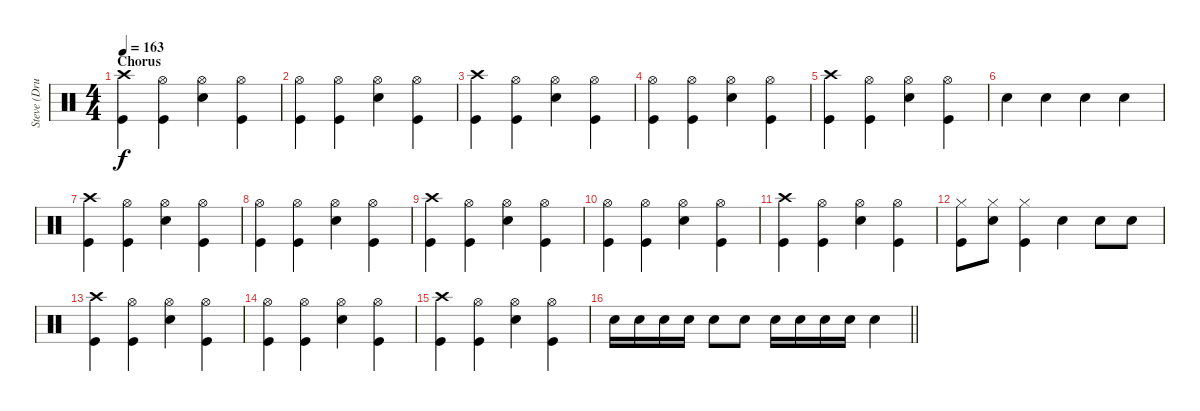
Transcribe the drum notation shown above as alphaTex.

\track ("Steve (Drums)" "Steve (Dru") {instrument percussion}
\staff {score}
\articulation defaults
\ts (4 4)
\section ("" "Chorus")
\tempo 163
\clef neutral
\ks c
("Crash high (hit)" "Kick (hit)").4{dy f} ("Hi-Hat (open)" "Kick (hit)").4 ("Hi-Hat (open)" "Electric Snare (hit)").4 ("Hi-Hat (open)" "Kick (hit)").4 |
("Hi-Hat (open)" "Kick (hit)").4 ("Hi-Hat (open)" "Kick (hit)").4 ("Hi-Hat (open)" "Electric Snare (hit)").4 ("Hi-Hat (open)" "Kick (hit)").4 |
("Crash high (hit)" "Kick (hit)").4 ("Hi-Hat (open)" "Kick (hit)").4 ("Hi-Hat (open)" "Electric Snare (hit)").4 ("Hi-Hat (open)" "Kick (hit)").4 |
("Hi-Hat (open)" "Kick (hit)").4 ("Hi-Hat (open)" "Kick (hit)").4 ("Hi-Hat (open)" "Electric Snare (hit)").4 ("Hi-Hat (open)" "Kick (hit)").4 |
("Crash high (hit)" "Kick (hit)").4 ("Hi-Hat (open)" "Kick (hit)").4 ("Hi-Hat (open)" "Electric Snare (hit)").4 ("Hi-Hat (open)" "Kick (hit)").4 |
"Electric Snare (hit)".4 "Electric Snare (hit)".4 "Electric Snare (hit)".4 "Electric Snare (hit)".4 |
("Crash high (hit)" "Kick (hit)").4 ("Hi-Hat (open)" "Kick (hit)").4 ("Hi-Hat (open)" "Electric Snare (hit)").4 ("Hi-Hat (open)" "Kick (hit)").4 |
("Hi-Hat (open)" "Kick (hit)").4 ("Hi-Hat (open)" "Kick (hit)").4 ("Hi-Hat (open)" "Electric Snare (hit)").4 ("Hi-Hat (open)" "Kick (hit)").4 |
("Crash high (hit)" "Kick (hit)").4 ("Hi-Hat (open)" "Kick (hit)").4 ("Hi-Hat (open)" "Electric Snare (hit)").4 ("Hi-Hat (open)" "Kick (hit)").4 |
("Hi-Hat (open)" "Kick (hit)").4 ("Hi-Hat (open)" "Kick (hit)").4 ("Hi-Hat (open)" "Electric Snare (hit)").4 ("Hi-Hat (open)" "Kick (hit)").4 |
("Crash high (hit)" "Kick (hit)").4 ("Hi-Hat (open)" "Kick (hit)").4 ("Hi-Hat (open)" "Electric Snare (hit)").4 ("Hi-Hat (open)" "Kick (hit)").4 |
("Hi-Hat (closed)" "Kick (hit)").8 ("Hi-Hat (closed)" "Electric Snare (hit)").8 ("Hi-Hat (closed)" "Kick (hit)").4 "Electric Snare (hit)".4 "Electric Snare (hit)".8 "Electric Snare (hit)".8 |
("Crash high (hit)" "Kick (hit)").4 ("Hi-Hat (open)" "Kick (hit)").4 ("Hi-Hat (open)" "Electric Snare (hit)").4 ("Hi-Hat (open)" "Kick (hit)").4 |
("Hi-Hat (open)" "Kick (hit)").4 ("Hi-Hat (open)" "Kick (hit)").4 ("Hi-Hat (open)" "Electric Snare (hit)").4 ("Hi-Hat (open)" "Kick (hit)").4 |
("Crash high (hit)" "Kick (hit)").4 ("Hi-Hat (open)" "Kick (hit)").4 ("Hi-Hat (open)" "Electric Snare (hit)").4 ("Hi-Hat (open)" "Kick (hit)").4 |
\barLineRight lightlight "Electric Snare (hit)".16 "Electric Snare (hit)".16 "Electric Snare (hit)".16 "Electric Snare (hit)".16 "Electric Snare (hit)".8 "Electric Snare (hit)".8 "Electric Snare (hit)".16 "Electric Snare (hit)".16 "Electric Snare (hit)".16 "Electric Snare (hit)".16 "Electric Snare (hit)".4
